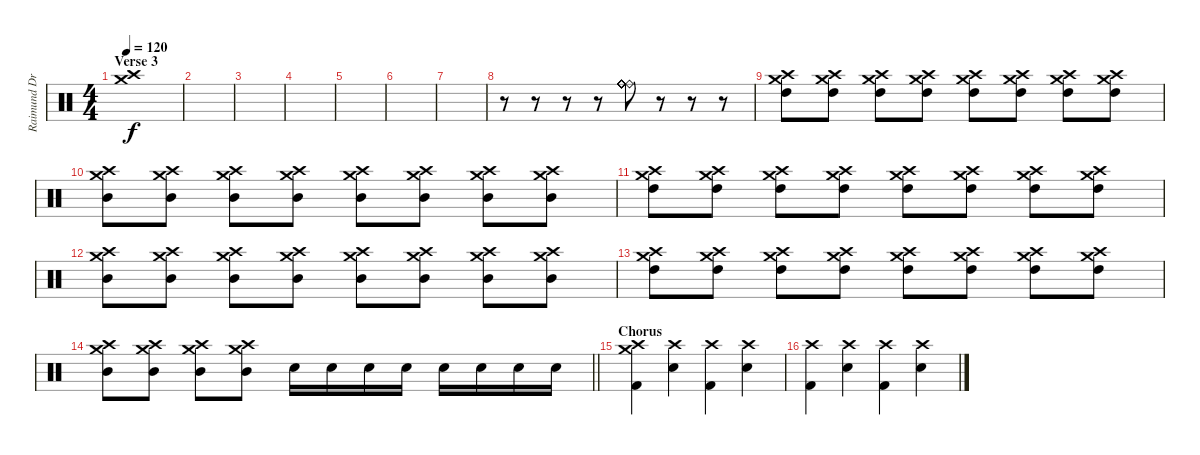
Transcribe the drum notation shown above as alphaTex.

\track ("Raimund Drums" "Raimund Dr") {instrument percussion}
\staff {score}
\articulation defaults
\ts (4 4)
\section ("" "Verse 3")
\tempo 120
\clef neutral
\ks c
("Crash high (hit)" "Crash medium (hit)").1{dy f} |
|
|
|
|
|
|
r.8 r.8 r.8 r.8 ("Ride (bell)" "Ride (bell)" "Ride (bell)" "Ride (bell)" "Ride (bell)" "Ride (bell)").8 r.8 r.8 r.8 |
("Crash high (hit)" "Crash medium (hit)" "High Tom (hit)").8 ("Crash high (hit)" "Crash medium (hit)" "High Tom (hit)").8 ("Crash high (hit)" "Crash medium (hit)" "High Tom (hit)").8 ("Crash high (hit)" "Crash medium (hit)" "High Tom (hit)").8 ("Crash high (hit)" "Crash medium (hit)" "High Tom (hit)").8 ("Crash high (hit)" "Crash medium (hit)" "High Tom (hit)").8 ("Crash high (hit)" "Crash medium (hit)" "High Tom (hit)").8 ("Crash high (hit)" "Crash medium (hit)" "High Tom (hit)").8 |
("Crash high (hit)" "Crash medium (hit)" "Mid Tom (hit)").8 ("Crash high (hit)" "Crash medium (hit)" "Mid Tom (hit)").8 ("Crash high (hit)" "Crash medium (hit)" "Mid Tom (hit)").8 ("Crash high (hit)" "Crash medium (hit)" "Mid Tom (hit)").8 ("Crash high (hit)" "Crash medium (hit)" "Mid Tom (hit)").8 ("Crash high (hit)" "Crash medium (hit)" "Mid Tom (hit)").8 ("Crash high (hit)" "Crash medium (hit)" "Mid Tom (hit)").8 ("Crash high (hit)" "Crash medium (hit)" "Mid Tom (hit)").8 |
("Crash high (hit)" "Crash medium (hit)" "High Tom (hit)").8 ("Crash high (hit)" "Crash medium (hit)" "High Tom (hit)").8 ("Crash high (hit)" "Crash medium (hit)" "High Tom (hit)").8 ("Crash high (hit)" "Crash medium (hit)" "High Tom (hit)").8 ("Crash high (hit)" "Crash medium (hit)" "High Tom (hit)").8 ("Crash high (hit)" "Crash medium (hit)" "High Tom (hit)").8 ("Crash high (hit)" "Crash medium (hit)" "High Tom (hit)").8 ("Crash high (hit)" "Crash medium (hit)" "High Tom (hit)").8 |
("Crash high (hit)" "Crash medium (hit)" "Mid Tom (hit)").8 ("Crash high (hit)" "Crash medium (hit)" "Mid Tom (hit)").8 ("Crash high (hit)" "Crash medium (hit)" "Mid Tom (hit)").8 ("Crash high (hit)" "Crash medium (hit)" "Mid Tom (hit)").8 ("Crash high (hit)" "Crash medium (hit)" "Mid Tom (hit)").8 ("Crash high (hit)" "Crash medium (hit)" "Mid Tom (hit)").8 ("Crash high (hit)" "Crash medium (hit)" "Mid Tom (hit)").8 ("Crash high (hit)" "Crash medium (hit)" "Mid Tom (hit)").8 |
("Crash high (hit)" "Crash medium (hit)" "High Tom (hit)").8 ("Crash high (hit)" "Crash medium (hit)" "High Tom (hit)").8 ("Crash high (hit)" "Crash medium (hit)" "High Tom (hit)").8 ("Crash high (hit)" "Crash medium (hit)" "High Tom (hit)").8 ("Crash high (hit)" "Crash medium (hit)" "High Tom (hit)").8 ("Crash high (hit)" "Crash medium (hit)" "High Tom (hit)").8 ("Crash high (hit)" "Crash medium (hit)" "High Tom (hit)").8 ("Crash high (hit)" "Crash medium (hit)" "High Tom (hit)").8 |
\barLineRight lightlight
("Crash high (hit)" "Crash medium (hit)" "Mid Tom (hit)").8 ("Crash high (hit)" "Crash medium (hit)" "Mid Tom (hit)").8 ("Crash high (hit)" "Crash medium (hit)" "Mid Tom (hit)").8 ("Crash high (hit)" "Crash medium (hit)" "Mid Tom (hit)").8 "Electric Snare (hit)".16 "Electric Snare (hit)".16 "Electric Snare (hit)".16 "Electric Snare (hit)".16 "Electric Snare (hit)".16 "Electric Snare (hit)".16 "Electric Snare (hit)".16 "Electric Snare (hit)".16 |
\section ("" "Chorus")
("Crash high (hit)" "Crash medium (hit)" "Kick (hit) 2").4 ("Crash high (hit)" "Electric Snare (hit)").4 ("Crash high (hit)" "Kick (hit) 2").4 ("Crash high (hit)" "Electric Snare (hit)").4 |
("Crash high (hit)" "Kick (hit) 2").4 ("Crash high (hit)" "Electric Snare (hit)").4 ("Crash high (hit)" "Kick (hit) 2").4 ("Crash high (hit)" "Electric Snare (hit)").4
